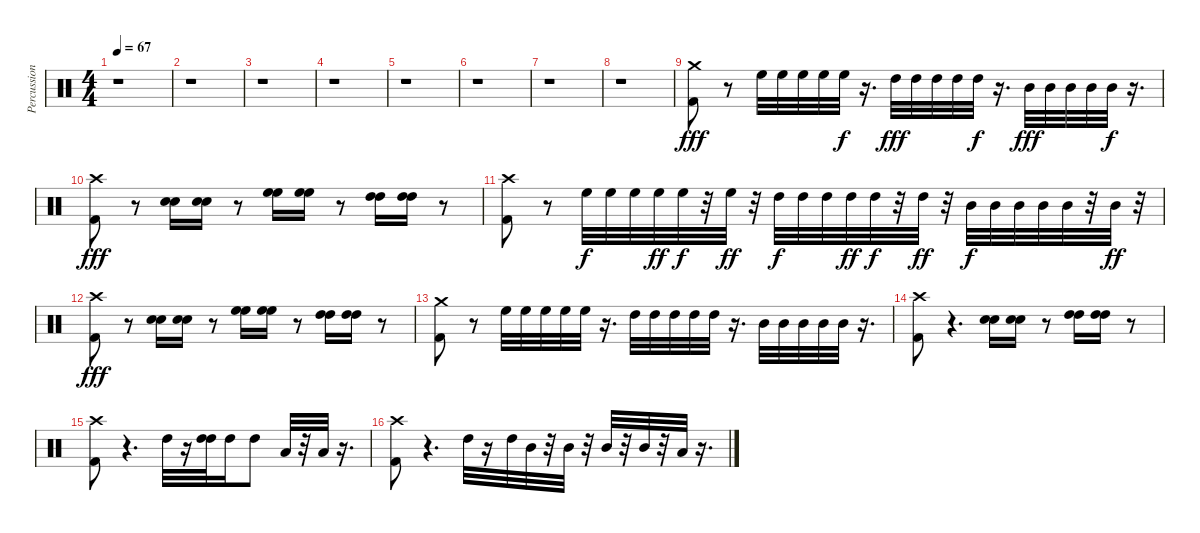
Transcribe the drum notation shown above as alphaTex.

\track ("Percussioni" "Percussion") {instrument percussion}
\staff {score}
\articulation defaults
\ts (4 4)
\tempo 67
\clef neutral
\ks c
r.1{dy fff} |
r.1 |
r.1 |
r.1 |
r.1 |
r.1 |
r.1 |
r.1 |
("Crash medium (hit)" "Kick (hit) 2").8 r.8 "High Floor Tom (hit)".32 "High Floor Tom (hit)".32 "High Floor Tom (hit)".32 "High Floor Tom (hit)".32 "High Floor Tom (hit)".32{dy f} r.16{d} "High Tom (hit)".32{dy fff} "High Tom (hit)".32 "High Tom (hit)".32 "High Tom (hit)".32 "High Tom (hit)".32{dy f} r.16{d} "Mid Tom (hit)".32{dy fff} "Mid Tom (hit)".32 "Mid Tom (hit)".32 "Mid Tom (hit)".32 "Mid Tom (hit)".32{dy f} r.16{d} |
("Crash high (hit)" "Kick (hit) 2").8{dy fff} r.8 ("Snare (hit) 2" "Snare (hit) 2").16 ("Snare (hit) 2" "Snare (hit) 2").16 r.8 ("High Floor Tom (hit)" "High Floor Tom (hit)").16 ("High Floor Tom (hit)" "High Floor Tom (hit)").16 r.8 ("High Tom (hit)" "High Tom (hit)").16 ("High Tom (hit)" "High Tom (hit)").16 r.8 |
("Crash high (hit)" "Kick (hit) 2").8 r.8 "High Floor Tom (hit)".32{dy f} "High Floor Tom (hit)".32 "High Floor Tom (hit)".32 "High Floor Tom (hit)".32{dy ff} "High Floor Tom (hit)".32{dy f} r.32 "High Floor Tom (hit)".32{dy ff} r.32 "High Tom (hit)".32{dy f} "High Tom (hit)".32 "High Tom (hit)".32 "High Tom (hit)".32{dy ff} "High Tom (hit)".32{dy f} r.32 "High Tom (hit)".32{dy ff} r.32 "Mid Tom (hit)".32{dy f} "Mid Tom (hit)".32 "Mid Tom (hit)".32 "Mid Tom (hit)".32 "Mid Tom (hit)".32 r.32 "Mid Tom (hit)".32{dy ff} r.32 |
("Crash high (hit)" "Kick (hit) 2").8{dy fff} r.8 ("Snare (hit) 2" "Snare (hit) 2").16 ("Snare (hit) 2" "Snare (hit) 2").16 r.8 ("High Floor Tom (hit)" "High Floor Tom (hit)").16 ("High Floor Tom (hit)" "High Floor Tom (hit)").16 r.8 ("High Tom (hit)" "High Tom (hit)").16 ("High Tom (hit)" "High Tom (hit)").16 r.8 |
("Crash medium (hit)" "Kick (hit) 2").8 r.8 "High Floor Tom (hit)".32 "High Floor Tom (hit)".32 "High Floor Tom (hit)".32 "High Floor Tom (hit)".32 "High Floor Tom (hit)".32 r.16{d} "High Tom (hit)".32 "High Tom (hit)".32 "High Tom (hit)".32 "High Tom (hit)".32 "High Tom (hit)".32 r.16{d} "Mid Tom (hit)".32 "Mid Tom (hit)".32 "Mid Tom (hit)".32 "Mid Tom (hit)".32 "Mid Tom (hit)".32 r.16{d} |
("Crash high (hit)" "Kick (hit) 2").8 r.4{d} ("Snare (hit) 2" "Snare (hit) 2").16 ("Snare (hit) 2" "Snare (hit) 2").16 r.8 ("High Tom (hit)" "High Tom (hit)").16 ("High Tom (hit)" "High Tom (hit)").16 r.8 |
("Crash high (hit)" "Kick (hit) 2").8 r.4{d} "High Tom (hit)".32 r.16 ("High Tom (hit)" "High Tom (hit)").32 "High Tom (hit)".16 "High Tom (hit)".8 "Low Tom (hit)".32 r.32 "Low Tom (hit)".32 r.16{d} |
("Crash high (hit)" "Kick (hit) 2").8 r.4{d} "High Tom (hit)".32 r.16 "High Tom (hit)".32 "Mid Tom (hit)".32 r.32 "Mid Tom (hit)".32 r.32 "Mid Tom (hit)".32 r.32 "Mid Tom (hit)".32 r.32 "Low Tom (hit)".32 r.16{d}
